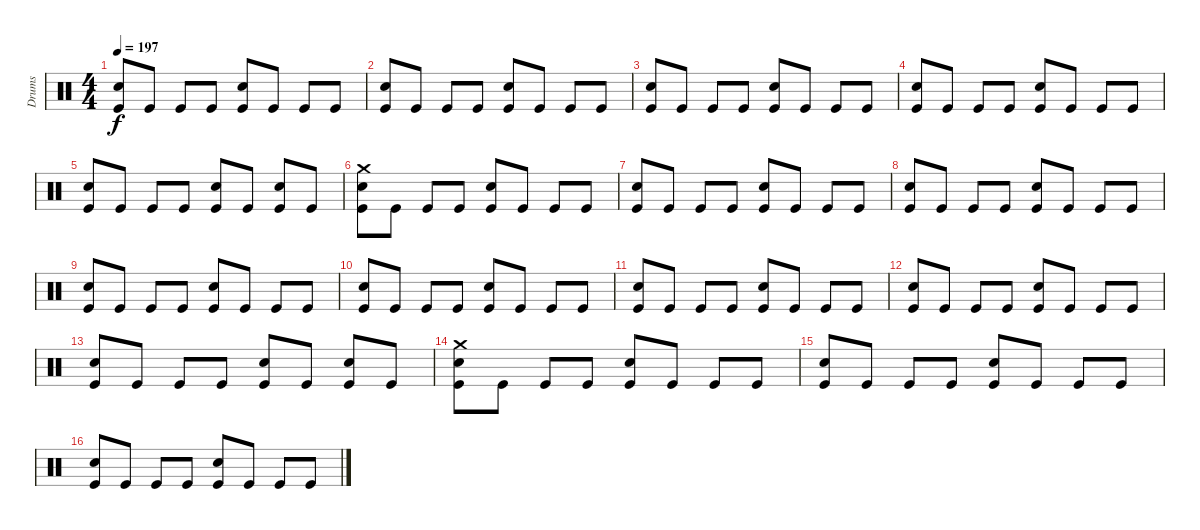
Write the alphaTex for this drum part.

\track ("Drums" "Drums") {instrument percussion}
\staff {score}
\articulation defaults
\ts (4 4)
\tempo 197
\clef neutral
\ks c
("Snare (hit) 2" "Kick (hit)").8{dy f} "Kick (hit)".8 "Kick (hit)".8 "Kick (hit)".8 ("Snare (hit) 2" "Kick (hit)").8 "Kick (hit)".8 "Kick (hit)".8 "Kick (hit)".8 |
("Snare (hit) 2" "Kick (hit)").8 "Kick (hit)".8 "Kick (hit)".8 "Kick (hit)".8 ("Snare (hit) 2" "Kick (hit)").8 "Kick (hit)".8 "Kick (hit)".8 "Kick (hit)".8 |
("Snare (hit) 2" "Kick (hit)").8 "Kick (hit)".8 "Kick (hit)".8 "Kick (hit)".8 ("Snare (hit) 2" "Kick (hit)").8 "Kick (hit)".8 "Kick (hit)".8 "Kick (hit)".8 |
("Snare (hit) 2" "Kick (hit)").8 "Kick (hit)".8 "Kick (hit)".8 "Kick (hit)".8 ("Snare (hit) 2" "Kick (hit)").8 "Kick (hit)".8 "Kick (hit)".8 "Kick (hit)".8 |
("Snare (hit) 2" "Kick (hit)").8 "Kick (hit)".8 "Kick (hit)".8 "Kick (hit)".8 ("Snare (hit) 2" "Kick (hit)").8 "Kick (hit)".8 ("Snare (hit) 2" "Kick (hit)").8 "Kick (hit)".8 |
("Crash medium (hit)" "Snare (hit) 2" "Kick (hit)").8 "Kick (hit)".8 "Kick (hit)".8 "Kick (hit)".8 ("Snare (hit) 2" "Kick (hit)").8 "Kick (hit)".8 "Kick (hit)".8 "Kick (hit)".8 |
("Snare (hit) 2" "Kick (hit)").8 "Kick (hit)".8 "Kick (hit)".8 "Kick (hit)".8 ("Snare (hit) 2" "Kick (hit)").8 "Kick (hit)".8 "Kick (hit)".8 "Kick (hit)".8 |
("Snare (hit) 2" "Kick (hit)").8 "Kick (hit)".8 "Kick (hit)".8 "Kick (hit)".8 ("Snare (hit) 2" "Kick (hit)").8 "Kick (hit)".8 "Kick (hit)".8 "Kick (hit)".8 |
("Snare (hit) 2" "Kick (hit)").8 "Kick (hit)".8 "Kick (hit)".8 "Kick (hit)".8 ("Snare (hit) 2" "Kick (hit)").8 "Kick (hit)".8 "Kick (hit)".8 "Kick (hit)".8 |
("Snare (hit) 2" "Kick (hit)").8 "Kick (hit)".8 "Kick (hit)".8 "Kick (hit)".8 ("Snare (hit) 2" "Kick (hit)").8 "Kick (hit)".8 "Kick (hit)".8 "Kick (hit)".8 |
("Snare (hit) 2" "Kick (hit)").8 "Kick (hit)".8 "Kick (hit)".8 "Kick (hit)".8 ("Snare (hit) 2" "Kick (hit)").8 "Kick (hit)".8 "Kick (hit)".8 "Kick (hit)".8 |
("Snare (hit) 2" "Kick (hit)").8 "Kick (hit)".8 "Kick (hit)".8 "Kick (hit)".8 ("Snare (hit) 2" "Kick (hit)").8 "Kick (hit)".8 "Kick (hit)".8 "Kick (hit)".8 |
("Snare (hit) 2" "Kick (hit)").8 "Kick (hit)".8 "Kick (hit)".8 "Kick (hit)".8 ("Snare (hit) 2" "Kick (hit)").8 "Kick (hit)".8 ("Snare (hit) 2" "Kick (hit)").8 "Kick (hit)".8 |
("Crash medium (hit)" "Snare (hit) 2" "Kick (hit)").8 "Kick (hit)".8 "Kick (hit)".8 "Kick (hit)".8 ("Snare (hit) 2" "Kick (hit)").8 "Kick (hit)".8 "Kick (hit)".8 "Kick (hit)".8 |
("Snare (hit) 2" "Kick (hit)").8 "Kick (hit)".8 "Kick (hit)".8 "Kick (hit)".8 ("Snare (hit) 2" "Kick (hit)").8 "Kick (hit)".8 "Kick (hit)".8 "Kick (hit)".8 |
("Snare (hit) 2" "Kick (hit)").8 "Kick (hit)".8 "Kick (hit)".8 "Kick (hit)".8 ("Snare (hit) 2" "Kick (hit)").8 "Kick (hit)".8 "Kick (hit)".8 "Kick (hit)".8
